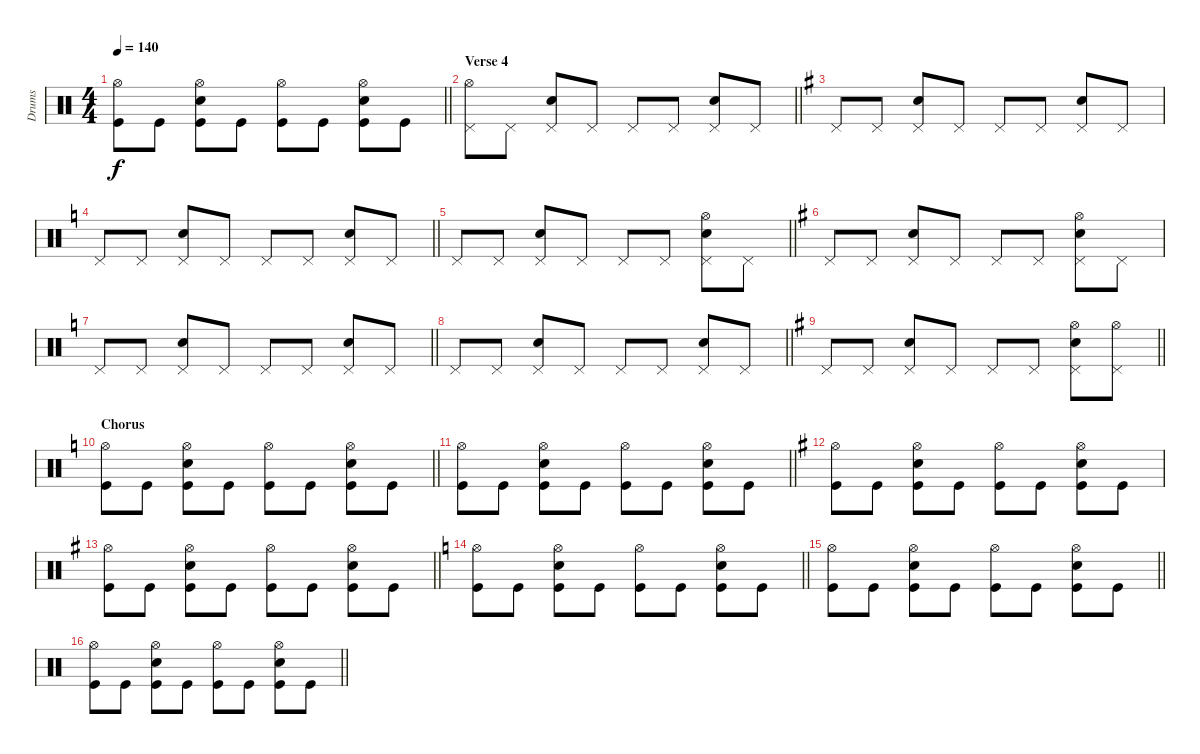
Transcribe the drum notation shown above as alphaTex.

\track ("Drums" "Drums") {instrument percussion}
\staff {score}
\articulation defaults
\ts (4 4)
\tempo 140
\clef neutral
\barLineRight lightlight
\ks c
("Hi-Hat (open)" "Kick (hit)").8{dy f} "Kick (hit)".8 ("Hi-Hat (open)" "Snare (hit) 2" "Kick (hit)").8 "Kick (hit)".8 ("Hi-Hat (open)" "Kick (hit)").8 "Kick (hit)".8 ("Hi-Hat (open)" "Snare (hit) 2" "Kick (hit)").8 "Kick (hit)".8 |
\section ("" "Verse 4")
\barLineRight lightlight
("Pedal Hi-Hat (hit)" "Hi-Hat (open)").8 "Pedal Hi-Hat (hit)".8 ("Pedal Hi-Hat (hit)" "Snare (hit) 2").8 "Pedal Hi-Hat (hit)".8 "Pedal Hi-Hat (hit)".8 "Pedal Hi-Hat (hit)".8 ("Pedal Hi-Hat (hit)" "Snare (hit) 2").8 "Pedal Hi-Hat (hit)".8 |
\ks g "Pedal Hi-Hat (hit)".8 "Pedal Hi-Hat (hit)".8
("Pedal Hi-Hat (hit)" "Snare (hit) 2").8 "Pedal Hi-Hat (hit)".8 "Pedal Hi-Hat (hit)".8 "Pedal Hi-Hat (hit)".8 ("Pedal Hi-Hat (hit)" "Snare (hit) 2").8 "Pedal Hi-Hat (hit)".8 |
\barLineRight lightlight
\ks c "Pedal Hi-Hat (hit)".8 "Pedal Hi-Hat (hit)".8
("Pedal Hi-Hat (hit)" "Snare (hit) 2").8 "Pedal Hi-Hat (hit)".8 "Pedal Hi-Hat (hit)".8 "Pedal Hi-Hat (hit)".8 ("Pedal Hi-Hat (hit)" "Snare (hit) 2").8 "Pedal Hi-Hat (hit)".8 |
\barLineRight lightlight "Pedal Hi-Hat (hit)".8 "Pedal Hi-Hat (hit)".8
("Pedal Hi-Hat (hit)" "Snare (hit) 2").8 "Pedal Hi-Hat (hit)".8 "Pedal Hi-Hat (hit)".8 "Pedal Hi-Hat (hit)".8 ("Pedal Hi-Hat (hit)" "Hi-Hat (open)" "Snare (hit) 2").8 "Pedal Hi-Hat (hit)".8 |
\ks g "Pedal Hi-Hat (hit)".8 "Pedal Hi-Hat (hit)".8
("Pedal Hi-Hat (hit)" "Snare (hit) 2").8 "Pedal Hi-Hat (hit)".8 "Pedal Hi-Hat (hit)".8 "Pedal Hi-Hat (hit)".8 ("Pedal Hi-Hat (hit)" "Hi-Hat (open)" "Snare (hit) 2").8 "Pedal Hi-Hat (hit)".8 |
\barLineRight lightlight
\ks c "Pedal Hi-Hat (hit)".8 "Pedal Hi-Hat (hit)".8
("Pedal Hi-Hat (hit)" "Snare (hit) 2").8 "Pedal Hi-Hat (hit)".8 "Pedal Hi-Hat (hit)".8 "Pedal Hi-Hat (hit)".8 ("Pedal Hi-Hat (hit)" "Snare (hit) 2").8 "Pedal Hi-Hat (hit)".8 |
\barLineRight lightlight "Pedal Hi-Hat (hit)".8 "Pedal Hi-Hat (hit)".8
("Pedal Hi-Hat (hit)" "Snare (hit) 2").8 "Pedal Hi-Hat (hit)".8 "Pedal Hi-Hat (hit)".8 "Pedal Hi-Hat (hit)".8 ("Pedal Hi-Hat (hit)" "Snare (hit) 2").8 "Pedal Hi-Hat (hit)".8 |
\barLineRight lightlight
\ks g "Pedal Hi-Hat (hit)".8 "Pedal Hi-Hat (hit)".8
("Pedal Hi-Hat (hit)" "Snare (hit) 2").8 "Pedal Hi-Hat (hit)".8 "Pedal Hi-Hat (hit)".8 "Pedal Hi-Hat (hit)".8 ("Pedal Hi-Hat (hit)" "Hi-Hat (open)" "Snare (hit) 2").8 ("Pedal Hi-Hat (hit)" "Hi-Hat (open)").8 |
\section ("" "Chorus")
\barLineRight lightlight
\ks c
("Hi-Hat (open)" "Kick (hit)").8 "Kick (hit)".8 ("Hi-Hat (open)" "Snare (hit) 2" "Kick (hit)").8 "Kick (hit)".8 ("Hi-Hat (open)" "Kick (hit)").8 "Kick (hit)".8 ("Hi-Hat (open)" "Snare (hit) 2" "Kick (hit)").8 "Kick (hit)".8 |
\barLineRight lightlight
("Hi-Hat (open)" "Kick (hit)").8 "Kick (hit)".8 ("Hi-Hat (open)" "Snare (hit) 2" "Kick (hit)").8 "Kick (hit)".8 ("Hi-Hat (open)" "Kick (hit)").8 "Kick (hit)".8 ("Hi-Hat (open)" "Snare (hit) 2" "Kick (hit)").8 "Kick (hit)".8 |
\ks g
("Hi-Hat (open)" "Kick (hit)").8 "Kick (hit)".8 ("Hi-Hat (open)" "Snare (hit) 2" "Kick (hit)").8 "Kick (hit)".8 ("Hi-Hat (open)" "Kick (hit)").8 "Kick (hit)".8 ("Hi-Hat (open)" "Snare (hit) 2" "Kick (hit)").8 "Kick (hit)".8 |
\barLineRight lightlight
("Hi-Hat (open)" "Kick (hit)").8 "Kick (hit)".8 ("Hi-Hat (open)" "Snare (hit) 2" "Kick (hit)").8 "Kick (hit)".8 ("Hi-Hat (open)" "Kick (hit)").8 "Kick (hit)".8 ("Hi-Hat (open)" "Snare (hit) 2" "Kick (hit)").8 "Kick (hit)".8 |
\barLineRight lightlight
\ks c
("Hi-Hat (open)" "Kick (hit)").8 "Kick (hit)".8 ("Hi-Hat (open)" "Snare (hit) 2" "Kick (hit)").8 "Kick (hit)".8 ("Hi-Hat (open)" "Kick (hit)").8 "Kick (hit)".8 ("Hi-Hat (open)" "Snare (hit) 2" "Kick (hit)").8 "Kick (hit)".8 |
\barLineRight lightlight
("Hi-Hat (open)" "Kick (hit)").8 "Kick (hit)".8 ("Hi-Hat (open)" "Snare (hit) 2" "Kick (hit)").8 "Kick (hit)".8 ("Hi-Hat (open)" "Kick (hit)").8 "Kick (hit)".8 ("Hi-Hat (open)" "Snare (hit) 2" "Kick (hit)").8 "Kick (hit)".8 |
\barLineRight lightlight
("Hi-Hat (open)" "Kick (hit)").8 "Kick (hit)".8 ("Hi-Hat (open)" "Snare (hit) 2" "Kick (hit)").8 "Kick (hit)".8 ("Hi-Hat (open)" "Kick (hit)").8 "Kick (hit)".8 ("Hi-Hat (open)" "Snare (hit) 2" "Kick (hit)").8 "Kick (hit)".8
